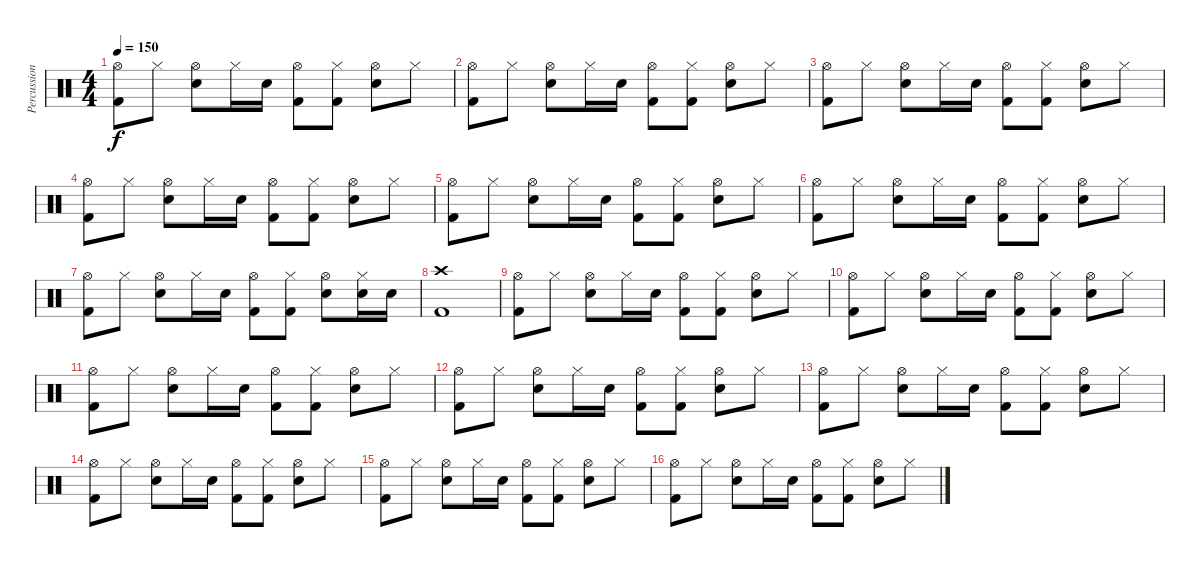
\track ("Percussion" "Percussion") {instrument percussion}
\staff {score}
\articulation defaults
\ts (4 4)
\tempo 150
\clef neutral
\ks c
("Hi-Hat (open)" "Kick (hit) 2").8{dy f} "Hi-Hat (closed)".8 ("Hi-Hat (open)" "Electric Snare (hit)").8 "Hi-Hat (closed)".16 "Electric Snare (hit)".16 ("Hi-Hat (open)" "Kick (hit) 2").8 ("Hi-Hat (closed)" "Kick (hit) 2").8 ("Hi-Hat (open)" "Electric Snare (hit)").8 "Hi-Hat (closed)".8 |
("Hi-Hat (open)" "Kick (hit) 2").8 "Hi-Hat (closed)".8 ("Hi-Hat (open)" "Electric Snare (hit)").8 "Hi-Hat (closed)".16 "Electric Snare (hit)".16 ("Hi-Hat (open)" "Kick (hit) 2").8 ("Hi-Hat (closed)" "Kick (hit) 2").8 ("Hi-Hat (open)" "Electric Snare (hit)").8 "Hi-Hat (closed)".8 |
("Hi-Hat (open)" "Kick (hit) 2").8 "Hi-Hat (closed)".8 ("Hi-Hat (open)" "Electric Snare (hit)").8 "Hi-Hat (closed)".16 "Electric Snare (hit)".16 ("Hi-Hat (open)" "Kick (hit) 2").8 ("Hi-Hat (closed)" "Kick (hit) 2").8 ("Hi-Hat (open)" "Electric Snare (hit)").8 "Hi-Hat (closed)".8 |
("Hi-Hat (open)" "Kick (hit) 2").8 "Hi-Hat (closed)".8 ("Hi-Hat (open)" "Electric Snare (hit)").8 "Hi-Hat (closed)".16 "Electric Snare (hit)".16 ("Hi-Hat (open)" "Kick (hit) 2").8 ("Hi-Hat (closed)" "Kick (hit) 2").8 ("Hi-Hat (open)" "Electric Snare (hit)").8 "Hi-Hat (closed)".8 |
("Hi-Hat (open)" "Kick (hit) 2").8 "Hi-Hat (closed)".8 ("Hi-Hat (open)" "Electric Snare (hit)").8 "Hi-Hat (closed)".16 "Electric Snare (hit)".16 ("Hi-Hat (open)" "Kick (hit) 2").8 ("Hi-Hat (closed)" "Kick (hit) 2").8 ("Hi-Hat (open)" "Electric Snare (hit)").8 "Hi-Hat (closed)".8 |
("Hi-Hat (open)" "Kick (hit) 2").8 "Hi-Hat (closed)".8 ("Hi-Hat (open)" "Electric Snare (hit)").8 "Hi-Hat (closed)".16 "Electric Snare (hit)".16 ("Hi-Hat (open)" "Kick (hit) 2").8 ("Hi-Hat (closed)" "Kick (hit) 2").8 ("Hi-Hat (open)" "Electric Snare (hit)").8 "Hi-Hat (closed)".8 |
("Hi-Hat (open)" "Kick (hit) 2").8 "Hi-Hat (closed)".8 ("Hi-Hat (open)" "Electric Snare (hit)").8 "Hi-Hat (closed)".16 "Electric Snare (hit)".16 ("Hi-Hat (open)" "Kick (hit) 2").8 ("Hi-Hat (closed)" "Kick (hit) 2").8 ("Hi-Hat (open)" "Electric Snare (hit)").8 ("Hi-Hat (closed)" "Electric Snare (hit)").16 "Electric Snare (hit)".16 |
("Crash high (hit)" "Kick (hit) 2").1 |
("Hi-Hat (open)" "Kick (hit) 2").8 "Hi-Hat (closed)".8 ("Hi-Hat (open)" "Electric Snare (hit)").8 "Hi-Hat (closed)".16 "Electric Snare (hit)".16 ("Hi-Hat (open)" "Kick (hit) 2").8 ("Hi-Hat (closed)" "Kick (hit) 2").8 ("Hi-Hat (open)" "Electric Snare (hit)").8 "Hi-Hat (closed)".8 |
("Hi-Hat (open)" "Kick (hit) 2").8 "Hi-Hat (closed)".8 ("Hi-Hat (open)" "Electric Snare (hit)").8 "Hi-Hat (closed)".16 "Electric Snare (hit)".16 ("Hi-Hat (open)" "Kick (hit) 2").8 ("Hi-Hat (closed)" "Kick (hit) 2").8 ("Hi-Hat (open)" "Electric Snare (hit)").8 "Hi-Hat (closed)".8 |
("Hi-Hat (open)" "Kick (hit) 2").8 "Hi-Hat (closed)".8 ("Hi-Hat (open)" "Electric Snare (hit)").8 "Hi-Hat (closed)".16 "Electric Snare (hit)".16 ("Hi-Hat (open)" "Kick (hit) 2").8 ("Hi-Hat (closed)" "Kick (hit) 2").8 ("Hi-Hat (open)" "Electric Snare (hit)").8 "Hi-Hat (closed)".8 |
("Hi-Hat (open)" "Kick (hit) 2").8 "Hi-Hat (closed)".8 ("Hi-Hat (open)" "Electric Snare (hit)").8 "Hi-Hat (closed)".16 "Electric Snare (hit)".16 ("Hi-Hat (open)" "Kick (hit) 2").8 ("Hi-Hat (closed)" "Kick (hit) 2").8 ("Hi-Hat (open)" "Electric Snare (hit)").8 "Hi-Hat (closed)".8 |
("Hi-Hat (open)" "Kick (hit) 2").8 "Hi-Hat (closed)".8 ("Hi-Hat (open)" "Electric Snare (hit)").8 "Hi-Hat (closed)".16 "Electric Snare (hit)".16 ("Hi-Hat (open)" "Kick (hit) 2").8 ("Hi-Hat (closed)" "Kick (hit) 2").8 ("Hi-Hat (open)" "Electric Snare (hit)").8 "Hi-Hat (closed)".8 |
("Hi-Hat (open)" "Kick (hit) 2").8 "Hi-Hat (closed)".8 ("Hi-Hat (open)" "Electric Snare (hit)").8 "Hi-Hat (closed)".16 "Electric Snare (hit)".16 ("Hi-Hat (open)" "Kick (hit) 2").8 ("Hi-Hat (closed)" "Kick (hit) 2").8 ("Hi-Hat (open)" "Electric Snare (hit)").8 "Hi-Hat (closed)".8 |
("Hi-Hat (open)" "Kick (hit) 2").8 "Hi-Hat (closed)".8 ("Hi-Hat (open)" "Electric Snare (hit)").8 "Hi-Hat (closed)".16 "Electric Snare (hit)".16 ("Hi-Hat (open)" "Kick (hit) 2").8 ("Hi-Hat (closed)" "Kick (hit) 2").8 ("Hi-Hat (open)" "Electric Snare (hit)").8 "Hi-Hat (closed)".8 |
("Hi-Hat (open)" "Kick (hit) 2").8 "Hi-Hat (closed)".8 ("Hi-Hat (open)" "Electric Snare (hit)").8 "Hi-Hat (closed)".16 "Electric Snare (hit)".16 ("Hi-Hat (open)" "Kick (hit) 2").8 ("Hi-Hat (closed)" "Kick (hit) 2").8 ("Hi-Hat (open)" "Electric Snare (hit)").8 "Hi-Hat (closed)".8
